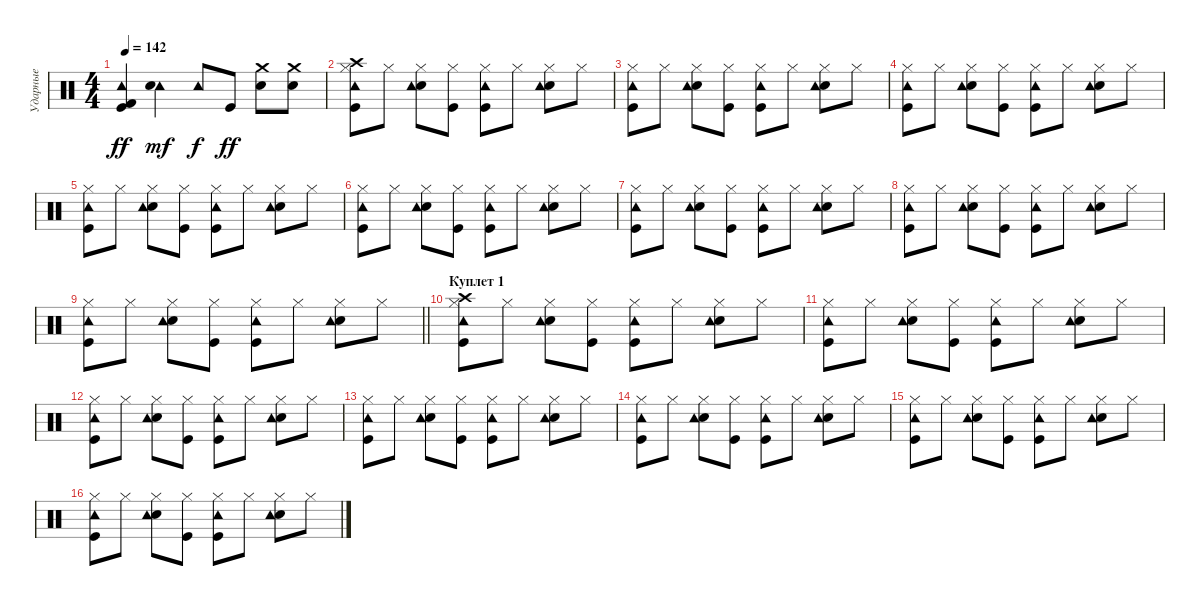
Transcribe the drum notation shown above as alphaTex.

\track ("Ударные" "Ударные") {instrument percussion}
\staff {score}
\articulation defaults
\ts (4 4)
\tempo 142
\clef neutral
\ks c
("Tambourine (hit)" "Kick (hit) 2" "Kick (hit)").4{dy ff} ("Tambourine (hit)" "Snare (hit) 2").4{dy mf} "Tambourine (hit)".8{dy f} "Kick (hit)".8{dy ff} ("Crash medium (hit)" "Electric Snare (hit)").8 ("Crash medium (hit)" "Electric Snare (hit)").8 |
("Crash high (hit)" "Hi-Hat (closed)" "Kick (hit)" "Tambourine (hit)").8 "Hi-Hat (closed)".8 ("Hi-Hat (closed)" "Electric Snare (hit)" "Tambourine (hit)").8 ("Hi-Hat (closed)" "Kick (hit)").8 ("Hi-Hat (closed)" "Tambourine (hit)" "Kick (hit)").8 "Hi-Hat (closed)".8 ("Hi-Hat (closed)" "Electric Snare (hit)" "Tambourine (hit)").8 "Hi-Hat (closed)".8 |
("Hi-Hat (closed)" "Kick (hit)" "Tambourine (hit)").8 "Hi-Hat (closed)".8 ("Hi-Hat (closed)" "Electric Snare (hit)" "Tambourine (hit)").8 ("Hi-Hat (closed)" "Kick (hit)").8 ("Hi-Hat (closed)" "Tambourine (hit)" "Kick (hit)").8 "Hi-Hat (closed)".8 ("Hi-Hat (closed)" "Electric Snare (hit)" "Tambourine (hit)").8 "Hi-Hat (closed)".8 |
("Hi-Hat (closed)" "Kick (hit)" "Tambourine (hit)").8 "Hi-Hat (closed)".8 ("Hi-Hat (closed)" "Electric Snare (hit)" "Tambourine (hit)").8 ("Hi-Hat (closed)" "Kick (hit)").8 ("Hi-Hat (closed)" "Tambourine (hit)" "Kick (hit)").8 "Hi-Hat (closed)".8 ("Hi-Hat (closed)" "Electric Snare (hit)" "Tambourine (hit)").8 "Hi-Hat (closed)".8 |
("Hi-Hat (closed)" "Kick (hit)" "Tambourine (hit)").8 "Hi-Hat (closed)".8 ("Hi-Hat (closed)" "Electric Snare (hit)" "Tambourine (hit)").8 ("Hi-Hat (closed)" "Kick (hit)").8 ("Hi-Hat (closed)" "Tambourine (hit)" "Kick (hit)").8 "Hi-Hat (closed)".8 ("Hi-Hat (closed)" "Electric Snare (hit)" "Tambourine (hit)").8 "Hi-Hat (closed)".8 |
("Hi-Hat (closed)" "Kick (hit)" "Tambourine (hit)").8 "Hi-Hat (closed)".8 ("Hi-Hat (closed)" "Electric Snare (hit)" "Tambourine (hit)").8 ("Hi-Hat (closed)" "Kick (hit)").8 ("Hi-Hat (closed)" "Tambourine (hit)" "Kick (hit)").8 "Hi-Hat (closed)".8 ("Hi-Hat (closed)" "Electric Snare (hit)" "Tambourine (hit)").8 "Hi-Hat (closed)".8 |
("Hi-Hat (closed)" "Kick (hit)" "Tambourine (hit)").8 "Hi-Hat (closed)".8 ("Hi-Hat (closed)" "Electric Snare (hit)" "Tambourine (hit)").8 ("Hi-Hat (closed)" "Kick (hit)").8 ("Hi-Hat (closed)" "Tambourine (hit)" "Kick (hit)").8 "Hi-Hat (closed)".8 ("Hi-Hat (closed)" "Electric Snare (hit)" "Tambourine (hit)").8 "Hi-Hat (closed)".8 |
("Hi-Hat (closed)" "Kick (hit)" "Tambourine (hit)").8 "Hi-Hat (closed)".8 ("Hi-Hat (closed)" "Electric Snare (hit)" "Tambourine (hit)").8 ("Hi-Hat (closed)" "Kick (hit)").8 ("Hi-Hat (closed)" "Tambourine (hit)" "Kick (hit)").8 "Hi-Hat (closed)".8 ("Hi-Hat (closed)" "Electric Snare (hit)" "Tambourine (hit)").8 "Hi-Hat (closed)".8 |
\barLineRight lightlight
("Hi-Hat (closed)" "Kick (hit)" "Tambourine (hit)").8 "Hi-Hat (closed)".8 ("Hi-Hat (closed)" "Electric Snare (hit)" "Tambourine (hit)").8 ("Hi-Hat (closed)" "Kick (hit)").8 ("Hi-Hat (closed)" "Tambourine (hit)" "Kick (hit)").8 "Hi-Hat (closed)".8 ("Hi-Hat (closed)" "Electric Snare (hit)" "Tambourine (hit)").8 "Hi-Hat (closed)".8 |
\section ("" "Куплет 1")
("Crash high (hit)" "Hi-Hat (closed)" "Kick (hit)" "Tambourine (hit)").8 "Hi-Hat (closed)".8 ("Hi-Hat (closed)" "Electric Snare (hit)" "Tambourine (hit)").8 ("Hi-Hat (closed)" "Kick (hit)").8 ("Hi-Hat (closed)" "Tambourine (hit)" "Kick (hit)").8 "Hi-Hat (closed)".8 ("Hi-Hat (closed)" "Electric Snare (hit)" "Tambourine (hit)").8 "Hi-Hat (closed)".8 |
("Hi-Hat (closed)" "Kick (hit)" "Tambourine (hit)").8 "Hi-Hat (closed)".8 ("Hi-Hat (closed)" "Electric Snare (hit)" "Tambourine (hit)").8 ("Hi-Hat (closed)" "Kick (hit)").8 ("Hi-Hat (closed)" "Tambourine (hit)" "Kick (hit)").8 "Hi-Hat (closed)".8 ("Hi-Hat (closed)" "Electric Snare (hit)" "Tambourine (hit)").8 "Hi-Hat (closed)".8 |
("Hi-Hat (closed)" "Kick (hit)" "Tambourine (hit)").8 "Hi-Hat (closed)".8 ("Hi-Hat (closed)" "Electric Snare (hit)" "Tambourine (hit)").8 ("Hi-Hat (closed)" "Kick (hit)").8 ("Hi-Hat (closed)" "Tambourine (hit)" "Kick (hit)").8 "Hi-Hat (closed)".8 ("Hi-Hat (closed)" "Electric Snare (hit)" "Tambourine (hit)").8 "Hi-Hat (closed)".8 |
("Hi-Hat (closed)" "Kick (hit)" "Tambourine (hit)").8 "Hi-Hat (closed)".8 ("Hi-Hat (closed)" "Electric Snare (hit)" "Tambourine (hit)").8 ("Hi-Hat (closed)" "Kick (hit)").8 ("Hi-Hat (closed)" "Tambourine (hit)" "Kick (hit)").8 "Hi-Hat (closed)".8 ("Hi-Hat (closed)" "Electric Snare (hit)" "Tambourine (hit)").8 "Hi-Hat (closed)".8 |
("Hi-Hat (closed)" "Kick (hit)" "Tambourine (hit)").8 "Hi-Hat (closed)".8 ("Hi-Hat (closed)" "Electric Snare (hit)" "Tambourine (hit)").8 ("Hi-Hat (closed)" "Kick (hit)").8 ("Hi-Hat (closed)" "Tambourine (hit)" "Kick (hit)").8 "Hi-Hat (closed)".8 ("Hi-Hat (closed)" "Electric Snare (hit)" "Tambourine (hit)").8 "Hi-Hat (closed)".8 |
("Hi-Hat (closed)" "Kick (hit)" "Tambourine (hit)").8 "Hi-Hat (closed)".8 ("Hi-Hat (closed)" "Electric Snare (hit)" "Tambourine (hit)").8 ("Hi-Hat (closed)" "Kick (hit)").8 ("Hi-Hat (closed)" "Tambourine (hit)" "Kick (hit)").8 "Hi-Hat (closed)".8 ("Hi-Hat (closed)" "Electric Snare (hit)" "Tambourine (hit)").8 "Hi-Hat (closed)".8 |
("Hi-Hat (closed)" "Kick (hit)" "Tambourine (hit)").8 "Hi-Hat (closed)".8 ("Hi-Hat (closed)" "Electric Snare (hit)" "Tambourine (hit)").8 ("Hi-Hat (closed)" "Kick (hit)").8 ("Hi-Hat (closed)" "Tambourine (hit)" "Kick (hit)").8 "Hi-Hat (closed)".8 ("Hi-Hat (closed)" "Electric Snare (hit)" "Tambourine (hit)").8 "Hi-Hat (closed)".8
